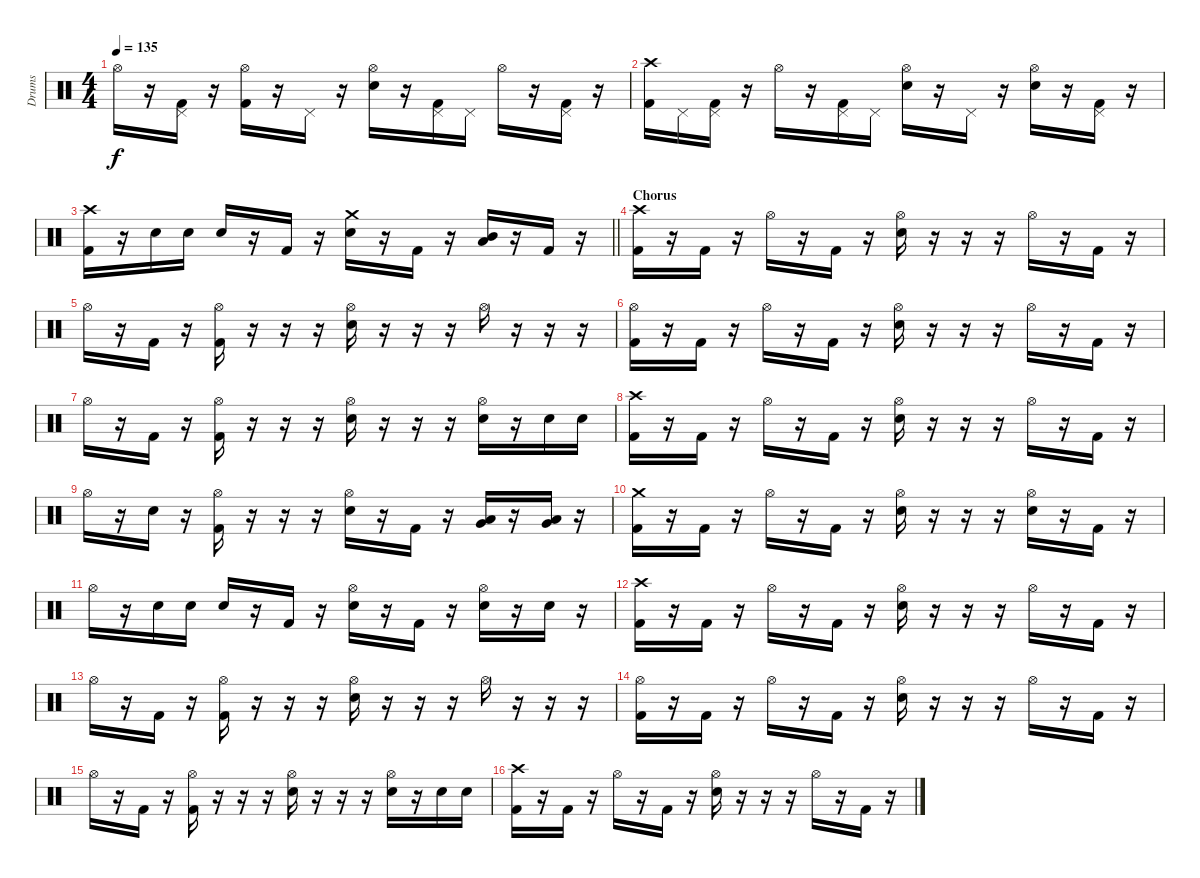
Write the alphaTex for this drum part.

\track ("Drums" "Drums") {instrument percussion}
\staff {score}
\articulation defaults
\ts (4 4)
\tempo 135
\clef neutral
\ks c "Hi-Hat (open)".16{dy f}
r.16 ("Pedal Hi-Hat (hit)" "Kick (hit) 2").16 r.16 ("Hi-Hat (open)" "Kick (hit) 2").16 r.16 "Pedal Hi-Hat (hit)".16 r.16 ("Hi-Hat (open)" "Snare (hit) 2").16 r.16 ("Pedal Hi-Hat (hit)" "Kick (hit) 2").16 "Pedal Hi-Hat (hit)".16 "Hi-Hat (open)".16 r.16 ("Pedal Hi-Hat (hit)" "Kick (hit) 2").16 r.16 |
("Crash high (hit)" "Kick (hit) 2").16 "Pedal Hi-Hat (hit)".16 ("Pedal Hi-Hat (hit)" "Kick (hit) 2").16 r.16 "Hi-Hat (open)".16 r.16 ("Pedal Hi-Hat (hit)" "Kick (hit) 2").16 "Pedal Hi-Hat (hit)".16 ("Hi-Hat (open)" "Snare (hit) 2").16 r.16 "Pedal Hi-Hat (hit)".16 r.16 ("Hi-Hat (open)" "Snare (hit) 2").16 r.16 ("Pedal Hi-Hat (hit)" "Kick (hit) 2").16 r.16 |
\barLineRight lightlight
("Crash high (hit)" "Kick (hit) 2").16 r.16 "Snare (hit) 2".16 "Snare (hit) 2".16 "Snare (hit) 2".16 r.16 "Kick (hit) 2".16 r.16 ("Crash medium (hit)" "Snare (hit) 2").16 r.16 "Kick (hit) 2".16 r.16 ("Mid Tom (hit)" "Low Tom (hit)").16 r.16 "Kick (hit) 2".16 r.16 |
\section ("" "Chorus")
("Crash high (hit)" "Kick (hit) 2").16 r.16 "Kick (hit) 2".16 r.16 "Hi-Hat (open)".16 r.16 "Kick (hit) 2".16 r.16 ("Hi-Hat (open)" "Snare (hit) 2").16 r.16 r.16 r.16 "Hi-Hat (open)".16 r.16 "Kick (hit) 2".16 r.16 |
"Hi-Hat (open)".16 r.16 "Kick (hit) 2".16 r.16 ("Hi-Hat (open)" "Kick (hit) 2").16 r.16 r.16 r.16 ("Hi-Hat (open)" "Snare (hit) 2").16 r.16 r.16 r.16 "Hi-Hat (open)".16 r.16 r.16 r.16 |
("Hi-Hat (open)" "Kick (hit) 2").16 r.16 "Kick (hit) 2".16 r.16 "Hi-Hat (open)".16 r.16 "Kick (hit) 2".16 r.16 ("Hi-Hat (open)" "Snare (hit) 2").16 r.16 r.16 r.16 "Hi-Hat (open)".16 r.16 "Kick (hit) 2".16 r.16 |
"Hi-Hat (open)".16 r.16 "Kick (hit) 2".16 r.16 ("Hi-Hat (open)" "Kick (hit) 2").16 r.16 r.16 r.16 ("Hi-Hat (open)" "Snare (hit) 2").16 r.16 r.16 r.16 ("Hi-Hat (open)" "Snare (hit) 2").16 r.16 "Snare (hit) 2".16 "Snare (hit) 2".16 |
("Crash high (hit)" "Kick (hit) 2").16 r.16 "Kick (hit) 2".16 r.16 "Hi-Hat (open)".16 r.16 "Kick (hit) 2".16 r.16 ("Hi-Hat (open)" "Snare (hit) 2").16 r.16 r.16 r.16 "Hi-Hat (open)".16 r.16 "Kick (hit) 2".16 r.16 |
"Hi-Hat (open)".16 r.16 "Snare (hit) 2".16 r.16 ("Hi-Hat (open)" "Kick (hit) 2").16 r.16 r.16 r.16 ("Hi-Hat (open)" "Snare (hit) 2").16 r.16 "Kick (hit) 2".16 r.16 ("Low Tom (hit)" "Very Low Tom (hit)").16 r.16 ("Low Tom (hit)" "Very Low Tom (hit)").16 r.16 |
("Crash medium (hit)" "Kick (hit) 2").16 r.16 "Kick (hit) 2".16 r.16 "Hi-Hat (open)".16 r.16 "Kick (hit) 2".16 r.16 ("Hi-Hat (open)" "Snare (hit) 2").16 r.16 r.16 r.16 ("Hi-Hat (open)" "Snare (hit) 2").16 r.16 "Kick (hit) 2".16 r.16 |
"Hi-Hat (open)".16 r.16 "Snare (hit) 2".16 "Snare (hit) 2".16 "Snare (hit) 2".16 r.16 "Kick (hit) 2".16 r.16 ("Hi-Hat (open)" "Snare (hit) 2").16 r.16 "Kick (hit) 2".16 r.16 ("Hi-Hat (open)" "Snare (hit) 2").16 r.16 "Snare (hit) 2".16 r.16 |
("Crash high (hit)" "Kick (hit) 2").16 r.16 "Kick (hit) 2".16 r.16 "Hi-Hat (open)".16 r.16 "Kick (hit) 2".16 r.16 ("Hi-Hat (open)" "Snare (hit) 2").16 r.16 r.16 r.16 "Hi-Hat (open)".16 r.16 "Kick (hit) 2".16 r.16 |
"Hi-Hat (open)".16 r.16 "Kick (hit) 2".16 r.16 ("Hi-Hat (open)" "Kick (hit) 2").16 r.16 r.16 r.16 ("Hi-Hat (open)" "Snare (hit) 2").16 r.16 r.16 r.16 "Hi-Hat (open)".16 r.16 r.16 r.16 |
("Hi-Hat (open)" "Kick (hit) 2").16 r.16 "Kick (hit) 2".16 r.16 "Hi-Hat (open)".16 r.16 "Kick (hit) 2".16 r.16 ("Hi-Hat (open)" "Snare (hit) 2").16 r.16 r.16 r.16 "Hi-Hat (open)".16 r.16 "Kick (hit) 2".16 r.16 |
"Hi-Hat (open)".16 r.16 "Kick (hit) 2".16 r.16 ("Hi-Hat (open)" "Kick (hit) 2").16 r.16 r.16 r.16 ("Hi-Hat (open)" "Snare (hit) 2").16 r.16 r.16 r.16 ("Hi-Hat (open)" "Snare (hit) 2").16 r.16 "Snare (hit) 2".16 "Snare (hit) 2".16 |
("Crash high (hit)" "Kick (hit) 2").16 r.16 "Kick (hit) 2".16 r.16 "Hi-Hat (open)".16 r.16 "Kick (hit) 2".16 r.16 ("Hi-Hat (open)" "Snare (hit) 2").16 r.16 r.16 r.16 "Hi-Hat (open)".16 r.16 "Kick (hit) 2".16 r.16
